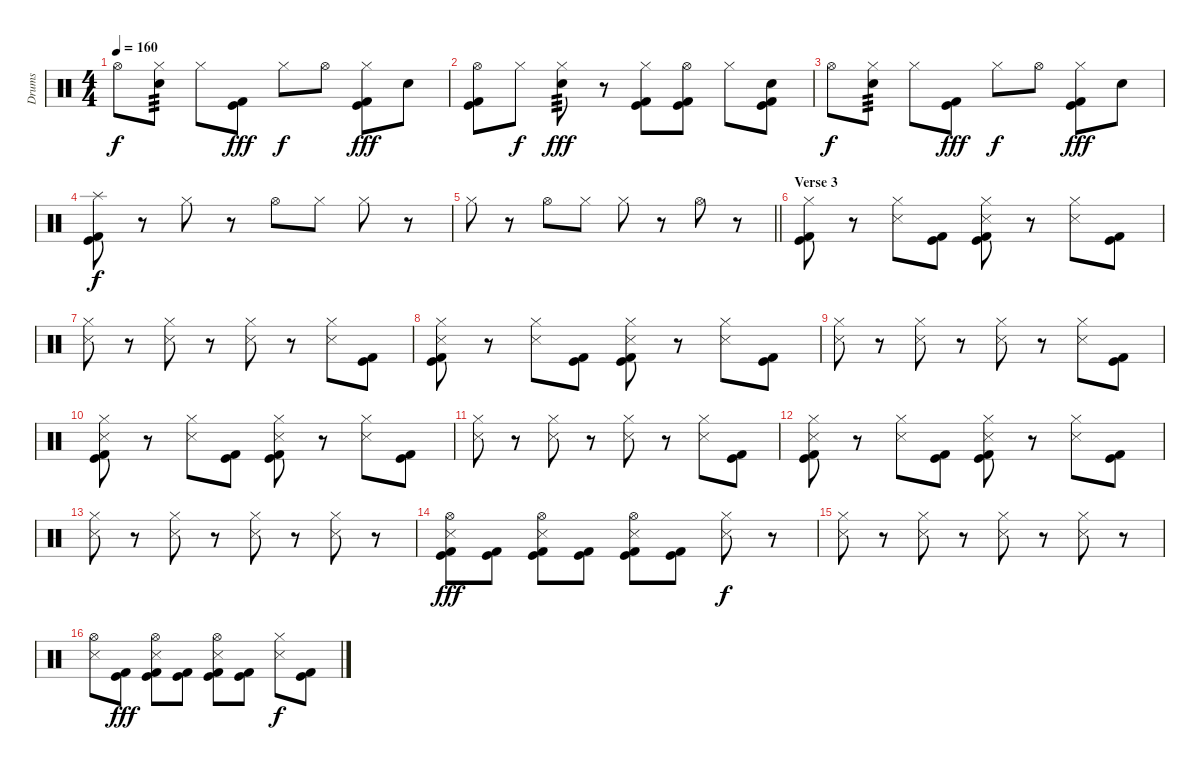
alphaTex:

\track ("Drums" "Drums") {instrument percussion}
\staff {score}
\articulation defaults
\ts (4 4)
\tempo 160
\clef neutral
\ks c "Hi-Hat (open)".8{dy f}
("Hi-Hat (closed)" "Electric Snare (hit)").8{tp 3} "Hi-Hat (closed)".8 ("Kick (hit)" "Kick (hit) 2").8{dy fff} "Hi-Hat (closed)".8{dy f} "Hi-Hat (open)".8 ("Hi-Hat (closed)" "Kick (hit)" "Kick (hit) 2").8{dy fff} "Electric Snare (hit)".8 |
("Hi-Hat (open)" "Kick (hit)" "Kick (hit) 2").8 "Hi-Hat (closed)".8{dy f} ("Hi-Hat (closed)" "Electric Snare (hit)").8{tp 3 dy fff} r.8 ("Hi-Hat (closed)" "Kick (hit)" "Kick (hit) 2").8 ("Hi-Hat (open)" "Kick (hit)" "Kick (hit) 2").8 "Hi-Hat (closed)".8 ("Electric Snare (hit)" "Kick (hit)" "Kick (hit) 2").8 |
"Hi-Hat (open)".8{dy f} ("Hi-Hat (closed)" "Electric Snare (hit)").8{tp 3} "Hi-Hat (closed)".8 ("Kick (hit)" "Kick (hit) 2").8{dy fff} "Hi-Hat (closed)".8{dy f} "Hi-Hat (open)".8 ("Hi-Hat (closed)" "Kick (hit)" "Kick (hit) 2").8{dy fff} "Electric Snare (hit)".8 |
("Splash (hit)" "Kick (hit)" "Kick (hit) 2").8{dy f} r.8 "Hi-Hat (closed)".8 r.8 "Hi-Hat (open)".8 "Hi-Hat (closed)".8 "Hi-Hat (closed)".8 r.8 |
\barLineRight lightlight "Hi-Hat (closed)".8
r.8 "Hi-Hat (open)".8 "Hi-Hat (closed)".8 "Hi-Hat (closed)".8 r.8 "Hi-Hat (open)".8 r.8 |
\section ("" "Verse 3")
("Hi-Hat (closed)" "Kick (hit)" "Kick (hit) 2").8 r.8 ("Hi-Hat (closed)" "Metronome (hit)").8 ("Kick (hit)" "Kick (hit) 2").8 ("Hi-Hat (closed)" "Metronome (hit)" "Kick (hit)" "Kick (hit) 2").8 r.8 ("Hi-Hat (closed)" "Metronome (hit)").8 ("Kick (hit)" "Kick (hit) 2").8 |
("Hi-Hat (closed)" "Metronome (hit)").8 r.8 ("Hi-Hat (closed)" "Metronome (hit)").8 r.8 ("Hi-Hat (closed)" "Metronome (hit)").8 r.8 ("Hi-Hat (closed)" "Metronome (hit)").8 ("Kick (hit)" "Kick (hit) 2").8 |
("Hi-Hat (closed)" "Metronome (hit)" "Kick (hit)" "Kick (hit) 2").8 r.8 ("Hi-Hat (closed)" "Metronome (hit)").8 ("Kick (hit)" "Kick (hit) 2").8 ("Hi-Hat (closed)" "Metronome (hit)" "Kick (hit)" "Kick (hit) 2").8 r.8 ("Hi-Hat (closed)" "Metronome (hit)").8 ("Kick (hit)" "Kick (hit) 2").8 |
("Hi-Hat (closed)" "Metronome (hit)").8 r.8 ("Hi-Hat (closed)" "Metronome (hit)").8 r.8 ("Hi-Hat (closed)" "Metronome (hit)").8 r.8 ("Hi-Hat (closed)" "Metronome (hit)").8 ("Kick (hit)" "Kick (hit) 2").8 |
("Hi-Hat (closed)" "Metronome (hit)" "Kick (hit)" "Kick (hit) 2").8 r.8 ("Hi-Hat (closed)" "Metronome (hit)").8 ("Kick (hit)" "Kick (hit) 2").8 ("Hi-Hat (closed)" "Metronome (hit)" "Kick (hit)" "Kick (hit) 2").8 r.8 ("Hi-Hat (closed)" "Metronome (hit)").8 ("Kick (hit)" "Kick (hit) 2").8 |
("Hi-Hat (closed)" "Metronome (hit)").8 r.8 ("Hi-Hat (closed)" "Metronome (hit)").8 r.8 ("Hi-Hat (closed)" "Metronome (hit)").8 r.8 ("Hi-Hat (closed)" "Metronome (hit)").8 ("Kick (hit)" "Kick (hit) 2").8 |
("Hi-Hat (closed)" "Metronome (hit)" "Kick (hit)" "Kick (hit) 2").8 r.8 ("Hi-Hat (closed)" "Metronome (hit)").8 ("Kick (hit)" "Kick (hit) 2").8 ("Hi-Hat (closed)" "Metronome (hit)" "Kick (hit)" "Kick (hit) 2").8 r.8 ("Hi-Hat (closed)" "Metronome (hit)").8 ("Kick (hit)" "Kick (hit) 2").8 |
("Hi-Hat (closed)" "Metronome (hit)").8 r.8 ("Hi-Hat (closed)" "Metronome (hit)").8 r.8 ("Hi-Hat (closed)" "Metronome (hit)").8 r.8 ("Hi-Hat (closed)" "Metronome (hit)").8 r.8 |
("Hi-Hat (open)" "Metronome (hit)" "Kick (hit)" "Kick (hit) 2").8{dy fff} ("Kick (hit)" "Kick (hit) 2").8 ("Hi-Hat (open)" "Metronome (hit)" "Kick (hit)" "Kick (hit) 2").8 ("Kick (hit)" "Kick (hit) 2").8 ("Hi-Hat (open)" "Metronome (hit)" "Kick (hit)" "Kick (hit) 2").8 ("Kick (hit)" "Kick (hit) 2").8 ("Hi-Hat (closed)" "Metronome (hit)").8{dy f} r.8 |
("Hi-Hat (closed)" "Metronome (hit)").8 r.8 ("Hi-Hat (closed)" "Metronome (hit)").8 r.8 ("Hi-Hat (closed)" "Metronome (hit)").8 r.8 ("Hi-Hat (closed)" "Metronome (hit)").8 r.8 |
("Hi-Hat (open)" "Metronome (hit)").8 ("Kick (hit)" "Kick (hit) 2").8{dy fff} ("Hi-Hat (open)" "Metronome (hit)" "Kick (hit)" "Kick (hit) 2").8 ("Kick (hit)" "Kick (hit) 2").8 ("Hi-Hat (open)" "Metronome (hit)" "Kick (hit)" "Kick (hit) 2").8 ("Kick (hit)" "Kick (hit) 2").8 ("Hi-Hat (closed)" "Metronome (hit)").8{dy f} ("Kick (hit)" "Kick (hit) 2").8
